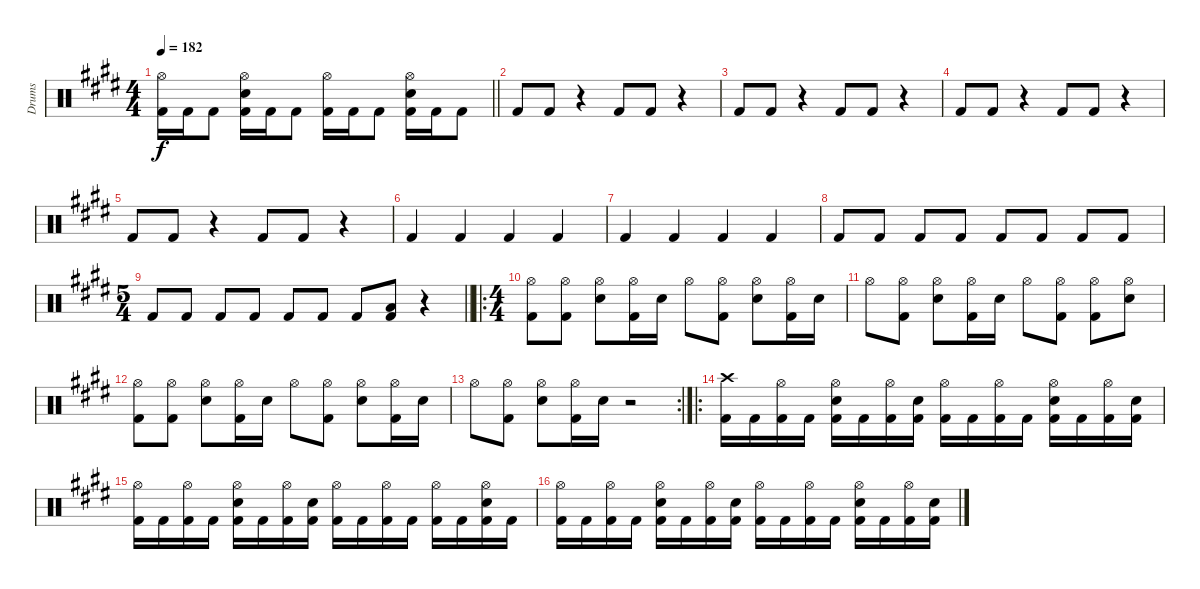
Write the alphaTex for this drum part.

\track ("Drums" "Drums") {instrument percussion}
\staff {score}
\articulation defaults
\ts (4 4)
\tempo 182
\clef neutral
\barLineRight lightlight
\ks c#minor
("Hi-Hat (open)" "Kick (hit) 2").16{dy f} "Kick (hit) 2".16 "Kick (hit) 2".8 ("Hi-Hat (open)" "Snare (hit) 2" "Kick (hit) 2").16 "Kick (hit) 2".16 "Kick (hit) 2".8 ("Hi-Hat (open)" "Kick (hit) 2").16 "Kick (hit) 2".16 "Kick (hit) 2".8 ("Hi-Hat (open)" "Snare (hit) 2" "Kick (hit) 2").16 "Kick (hit) 2".16 "Kick (hit) 2".8 |
"Kick (hit) 2".8 "Kick (hit) 2".8 r.4 "Kick (hit) 2".8 "Kick (hit) 2".8 r.4 |
"Kick (hit) 2".8 "Kick (hit) 2".8 r.4 "Kick (hit) 2".8 "Kick (hit) 2".8 r.4 |
"Kick (hit) 2".8 "Kick (hit) 2".8 r.4 "Kick (hit) 2".8 "Kick (hit) 2".8 r.4 |
"Kick (hit) 2".8 "Kick (hit) 2".8 r.4 "Kick (hit) 2".8 "Kick (hit) 2".8 r.4 |
"Kick (hit) 2".4 "Kick (hit) 2".4 "Kick (hit) 2".4 "Kick (hit) 2".4 |
"Kick (hit) 2".4 "Kick (hit) 2".4 "Kick (hit) 2".4 "Kick (hit) 2".4 |
"Kick (hit) 2".8 "Kick (hit) 2".8 "Kick (hit) 2".8 "Kick (hit) 2".8 "Kick (hit) 2".8 "Kick (hit) 2".8 "Kick (hit) 2".8 "Kick (hit) 2".8 |
\ts (5 4)
\barLineRight lightlight "Kick (hit) 2".8 "Kick (hit) 2".8 "Kick (hit) 2".8 "Kick (hit) 2".8 "Kick (hit) 2".8 "Kick (hit) 2".8 "Kick (hit) 2".8
("Low Floor Tom (hit)" "Kick (hit) 2").8 r.4 |
\ro
\ts (4 4)
("Hi-Hat (open)" "Kick (hit) 2").8 ("Hi-Hat (open)" "Kick (hit) 2").8 ("Hi-Hat (open)" "Snare (hit) 2").8 ("Hi-Hat (open)" "Kick (hit) 2").16 "Snare (hit) 2".16 "Hi-Hat (open)".8 ("Hi-Hat (open)" "Kick (hit) 2").8 ("Hi-Hat (open)" "Snare (hit) 2").8 ("Hi-Hat (open)" "Kick (hit) 2").16 "Snare (hit) 2".16 |
"Hi-Hat (open)".8 ("Hi-Hat (open)" "Kick (hit) 2").8 ("Hi-Hat (open)" "Snare (hit) 2").8 ("Hi-Hat (open)" "Kick (hit) 2").16 "Snare (hit) 2".16 "Hi-Hat (open)".8 ("Hi-Hat (open)" "Kick (hit) 2").8 ("Hi-Hat (open)" "Kick (hit) 2").8 ("Hi-Hat (open)" "Snare (hit) 2").8 |
("Hi-Hat (open)" "Kick (hit) 2").8 ("Hi-Hat (open)" "Kick (hit) 2").8 ("Hi-Hat (open)" "Snare (hit) 2").8 ("Hi-Hat (open)" "Kick (hit) 2").16 "Snare (hit) 2".16 "Hi-Hat (open)".8 ("Hi-Hat (open)" "Kick (hit) 2").8 ("Hi-Hat (open)" "Snare (hit) 2").8 ("Hi-Hat (open)" "Kick (hit) 2").16 "Snare (hit) 2".16 |
\rc 2 "Hi-Hat (open)".8
("Hi-Hat (open)" "Kick (hit) 2").8 ("Hi-Hat (open)" "Snare (hit) 2").8 ("Hi-Hat (open)" "Kick (hit) 2").16 "Snare (hit) 2".16 r.2 |
\ro
("Crash high (hit)" "Kick (hit) 2").16 "Kick (hit) 2".16 ("Hi-Hat (open)" "Kick (hit) 2").16 "Kick (hit) 2".16 ("Hi-Hat (open)" "Snare (hit) 2" "Kick (hit) 2").16 "Kick (hit) 2".16 ("Hi-Hat (open)" "Kick (hit) 2").16 ("Snare (hit) 2" "Kick (hit) 2").16 ("Hi-Hat (open)" "Kick (hit) 2").16 "Kick (hit) 2".16 ("Hi-Hat (open)" "Kick (hit) 2").16 "Kick (hit) 2".16 ("Hi-Hat (open)" "Snare (hit) 2" "Kick (hit) 2").16 "Kick (hit) 2".16 ("Hi-Hat (open)" "Kick (hit) 2").16 ("Snare (hit) 2" "Kick (hit) 2").16 |
("Hi-Hat (open)" "Kick (hit) 2").16 "Kick (hit) 2".16 ("Hi-Hat (open)" "Kick (hit) 2").16 "Kick (hit) 2".16 ("Hi-Hat (open)" "Snare (hit) 2" "Kick (hit) 2").16 "Kick (hit) 2".16 ("Hi-Hat (open)" "Kick (hit) 2").16 ("Snare (hit) 2" "Kick (hit) 2").16 ("Hi-Hat (open)" "Kick (hit) 2").16 "Kick (hit) 2".16 ("Hi-Hat (open)" "Kick (hit) 2").16 "Kick (hit) 2".16 ("Hi-Hat (open)" "Kick (hit) 2").16 "Kick (hit) 2".16 ("Hi-Hat (open)" "Snare (hit) 2" "Kick (hit) 2").16 "Kick (hit) 2".16 |
("Hi-Hat (open)" "Kick (hit) 2").16 "Kick (hit) 2".16 ("Hi-Hat (open)" "Kick (hit) 2").16 "Kick (hit) 2".16 ("Hi-Hat (open)" "Snare (hit) 2" "Kick (hit) 2").16 "Kick (hit) 2".16 ("Hi-Hat (open)" "Kick (hit) 2").16 ("Snare (hit) 2" "Kick (hit) 2").16 ("Hi-Hat (open)" "Kick (hit) 2").16 "Kick (hit) 2".16 ("Hi-Hat (open)" "Kick (hit) 2").16 "Kick (hit) 2".16 ("Hi-Hat (open)" "Snare (hit) 2" "Kick (hit) 2").16 "Kick (hit) 2".16 ("Hi-Hat (open)" "Kick (hit) 2").16 ("Snare (hit) 2" "Kick (hit) 2").16
